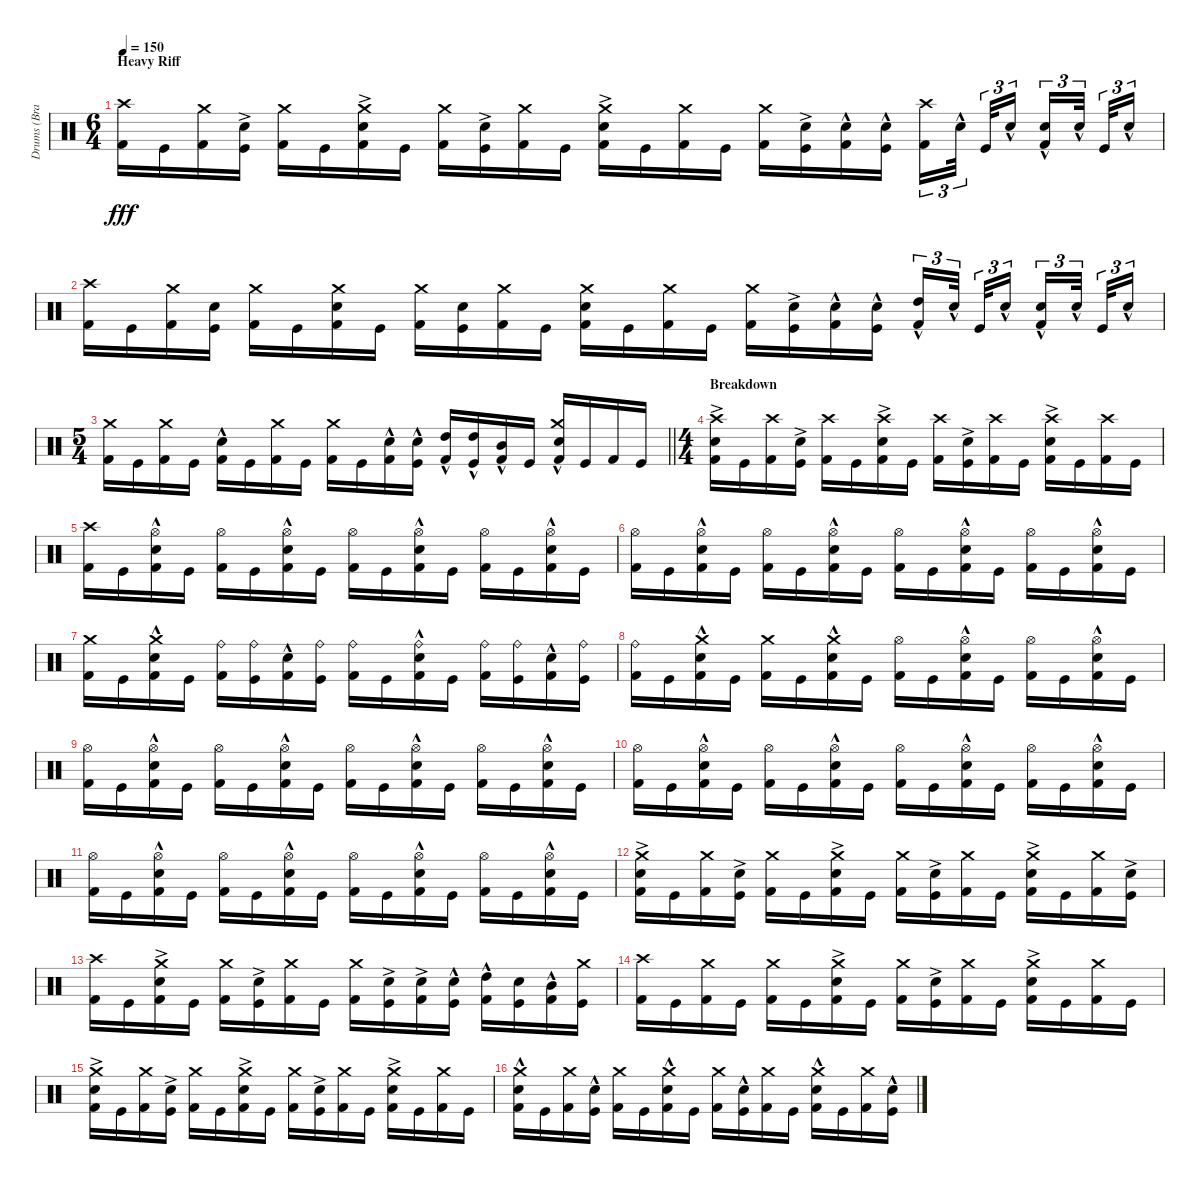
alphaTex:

\track ("Drums (Brann Dailor)" "Drums (Bra") {instrument percussion}
\staff {score}
\articulation defaults
\ts (6 4)
\section ("" "Heavy Riff")
\tempo 150
\clef neutral
\ks c
("Crash high (hit)" "Kick (hit) 2").16{dy fff} "Kick (hit)".16 ("Crash medium (hit)" "Kick (hit) 2").16 ("Electric Snare (hit)"{ac} "Kick (hit)").16 ("Crash medium (hit)" "Kick (hit) 2").16 "Kick (hit)".16 ("Crash medium (hit)" "Electric Snare (hit)"{ac} "Kick (hit) 2").16 "Kick (hit)".16 ("Crash medium (hit)" "Kick (hit) 2").16 ("Electric Snare (hit)"{ac} "Kick (hit)").16 ("Crash medium (hit)" "Kick (hit) 2").16 "Kick (hit)".16 ("Crash medium (hit)" "Electric Snare (hit)"{ac} "Kick (hit) 2").16 "Kick (hit)".16 ("Crash medium (hit)" "Kick (hit) 2").16 "Kick (hit)".16 ("Crash medium (hit)" "Kick (hit) 2").16 ("Electric Snare (hit)"{ac} "Kick (hit)").16 ("Electric Snare (hit)"{hac} "Kick (hit) 2").16 ("Electric Snare (hit)"{hac} "Kick (hit)").16{beam splitsecondary} ("Crash high (hit)" "Kick (hit) 2").16{tu (3 2)} "Electric Snare (hit)"{hac}.32{tu (3 2) beam splitsecondary} "Kick (hit)".32{tu (3 2)} "Electric Snare (hit)"{hac}.16{tu (3 2) beam splitsecondary} ("Electric Snare (hit)"{hac} "Kick (hit) 2").16{tu (3 2)} "Electric Snare (hit)"{hac}.32{tu (3 2) beam splitsecondary} "Kick (hit)".32{tu (3 2)} "Electric Snare (hit)"{hac}.16{tu (3 2)} |
("Crash high (hit)" "Kick (hit) 2").16 "Kick (hit)".16 ("Crash medium (hit)" "Kick (hit) 2").16 ("Electric Snare (hit)" "Kick (hit)").16 ("Crash medium (hit)" "Kick (hit) 2").16 "Kick (hit)".16 ("Crash medium (hit)" "Electric Snare (hit)" "Kick (hit) 2").16 "Kick (hit)".16 ("Crash medium (hit)" "Kick (hit) 2").16 ("Electric Snare (hit)" "Kick (hit)").16 ("Crash medium (hit)" "Kick (hit) 2").16 "Kick (hit)".16 ("Crash medium (hit)" "Electric Snare (hit)" "Kick (hit) 2").16 "Kick (hit)".16 ("Crash medium (hit)" "Kick (hit) 2").16 "Kick (hit)".16 ("Crash medium (hit)" "Kick (hit) 2").16 ("Electric Snare (hit)"{ac} "Kick (hit)").16 ("Electric Snare (hit)"{hac} "Kick (hit) 2").16 ("Electric Snare (hit)"{hac} "Kick (hit)").16{beam splitsecondary} ("High Tom (hit)"{hac} "Kick (hit) 2").16{tu (3 2)} "Electric Snare (hit)"{hac}.32{tu (3 2) beam splitsecondary} "Kick (hit)".32{tu (3 2)} "Electric Snare (hit)"{hac}.16{tu (3 2) beam splitsecondary} ("Electric Snare (hit)"{hac} "Kick (hit) 2").16{tu (3 2)} "Electric Snare (hit)"{hac}.32{tu (3 2) beam splitsecondary} "Kick (hit)".32{tu (3 2)} "Electric Snare (hit)"{hac}.16{tu (3 2)} |
\ts (5 4)
\barLineRight lightlight
("Crash medium (hit)" "Kick (hit) 2").16 "Kick (hit)".16 ("Crash medium (hit)" "Kick (hit) 2").16 "Kick (hit)".16 ("Electric Snare (hit)"{hac} "Kick (hit) 2").16 "Kick (hit)".16 ("Crash medium (hit)" "Kick (hit) 2").16 "Kick (hit)".16 ("Crash medium (hit)" "Kick (hit) 2").16 "Kick (hit)".16 ("Electric Snare (hit)"{hac} "Kick (hit) 2").16 ("Electric Snare (hit)"{hac} "Kick (hit)").16 ("High Tom (hit)"{hac} "Kick (hit) 2").16 ("High Tom (hit)"{hac} "Kick (hit)").16 ("Mid Tom (hit)"{hac} "Kick (hit) 2").16 "Kick (hit)".16 ("Crash medium (hit)" "Electric Snare (hit)"{hac} "Kick (hit) 2").16 "Kick (hit)".16 "Kick (hit) 2".16 "Kick (hit)".16 |
\ts (4 4)
\section ("" "Breakdown")
("Crash high (hit)" "Electric Snare (hit)"{ac} "Kick (hit) 2").16 "Kick (hit)".16 ("Crash high (hit)" "Kick (hit) 2").16 ("Electric Snare (hit)"{ac} "Kick (hit)").16 ("Crash high (hit)" "Kick (hit) 2").16 "Kick (hit)".16 ("Crash high (hit)" "Electric Snare (hit)"{ac} "Kick (hit) 2").16 "Kick (hit)".16 ("Crash high (hit)" "Kick (hit) 2").16 ("Electric Snare (hit)"{ac} "Kick (hit)").16 ("Crash high (hit)" "Kick (hit) 2").16 "Kick (hit)".16 ("Crash high (hit)" "Electric Snare (hit)"{ac} "Kick (hit) 2").16 "Kick (hit)".16 ("Crash high (hit)" "Kick (hit) 2").16 "Kick (hit)".16 |
("Crash high (hit)" "Kick (hit) 2").16 "Kick (hit)".16 ("Hi-Hat (open)" "Electric Snare (hit)"{hac} "Kick (hit) 2").16 "Kick (hit)".16 ("Hi-Hat (open)" "Kick (hit) 2").16 "Kick (hit)".16 ("Hi-Hat (open)" "Electric Snare (hit)"{hac} "Kick (hit) 2").16 "Kick (hit)".16 ("Hi-Hat (open)" "Kick (hit) 2").16 "Kick (hit)".16 ("Hi-Hat (open)" "Electric Snare (hit)"{hac} "Kick (hit) 2").16 "Kick (hit)".16 ("Hi-Hat (open)" "Kick (hit) 2").16 "Kick (hit)".16 ("Hi-Hat (open)" "Electric Snare (hit)"{hac} "Kick (hit) 2").16 "Kick (hit)".16 |
("Hi-Hat (open)" "Kick (hit) 2").16 "Kick (hit)".16 ("Hi-Hat (open)" "Electric Snare (hit)"{hac} "Kick (hit) 2").16 "Kick (hit)".16 ("Hi-Hat (open)" "Kick (hit) 2").16 "Kick (hit)".16 ("Hi-Hat (open)" "Electric Snare (hit)"{hac} "Kick (hit) 2").16 "Kick (hit)".16 ("Hi-Hat (open)" "Kick (hit) 2").16 "Kick (hit)".16 ("Hi-Hat (open)" "Electric Snare (hit)"{hac} "Kick (hit) 2").16 "Kick (hit)".16 ("Hi-Hat (open)" "Kick (hit) 2").16 "Kick (hit)".16 ("Hi-Hat (open)" "Electric Snare (hit)"{hac} "Kick (hit) 2").16 "Kick (hit)".16 |
("Crash medium (hit)" "Kick (hit) 2").16 "Kick (hit)".16 ("Crash medium (hit)" "Electric Snare (hit)"{hac} "Kick (hit) 2").16 "Kick (hit)".16 ("Ride (bell)" "Kick (hit) 2").16 ("Ride (bell)" "Kick (hit)").16 ("Electric Snare (hit)"{hac} "Kick (hit) 2").16 ("Ride (bell)" "Kick (hit)").16 ("Ride (bell)" "Kick (hit) 2").16 "Kick (hit)".16 ("Ride (bell)" "Electric Snare (hit)"{hac} "Kick (hit) 2").16 "Kick (hit)".16 ("Ride (bell)" "Kick (hit) 2").16 ("Ride (bell)" "Kick (hit)").16 ("Electric Snare (hit)"{hac} "Kick (hit) 2").16 ("Ride (bell)" "Kick (hit)").16 |
("Ride (bell)" "Kick (hit) 2").16 "Kick (hit)".16 ("Crash medium (hit)" "Electric Snare (hit)"{hac} "Kick (hit) 2").16 "Kick (hit)".16 ("Crash medium (hit)" "Kick (hit) 2").16 "Kick (hit)".16 ("Crash medium (hit)" "Electric Snare (hit)"{hac} "Kick (hit) 2").16 "Kick (hit)".16 ("Hi-Hat (open)" "Kick (hit) 2").16 "Kick (hit)".16 ("Hi-Hat (open)" "Electric Snare (hit)"{hac} "Kick (hit) 2").16 "Kick (hit)".16 ("Hi-Hat (open)" "Kick (hit) 2").16 "Kick (hit)".16 ("Hi-Hat (open)" "Electric Snare (hit)"{hac} "Kick (hit) 2").16 "Kick (hit)".16 |
("Hi-Hat (open)" "Kick (hit) 2").16 "Kick (hit)".16 ("Hi-Hat (open)" "Electric Snare (hit)"{hac} "Kick (hit) 2").16 "Kick (hit)".16 ("Hi-Hat (open)" "Kick (hit) 2").16 "Kick (hit)".16 ("Hi-Hat (open)" "Electric Snare (hit)"{hac} "Kick (hit) 2").16 "Kick (hit)".16 ("Hi-Hat (open)" "Kick (hit) 2").16 "Kick (hit)".16 ("Hi-Hat (open)" "Electric Snare (hit)"{hac} "Kick (hit) 2").16 "Kick (hit)".16 ("Hi-Hat (open)" "Kick (hit) 2").16 "Kick (hit)".16 ("Hi-Hat (open)" "Electric Snare (hit)"{hac} "Kick (hit) 2").16 "Kick (hit)".16 |
("Hi-Hat (open)" "Kick (hit) 2").16 "Kick (hit)".16 ("Hi-Hat (open)" "Electric Snare (hit)"{hac} "Kick (hit) 2").16 "Kick (hit)".16 ("Hi-Hat (open)" "Kick (hit) 2").16 "Kick (hit)".16 ("Hi-Hat (open)" "Electric Snare (hit)"{hac} "Kick (hit) 2").16 "Kick (hit)".16 ("Hi-Hat (open)" "Kick (hit) 2").16 "Kick (hit)".16 ("Hi-Hat (open)" "Electric Snare (hit)"{hac} "Kick (hit) 2").16 "Kick (hit)".16 ("Hi-Hat (open)" "Kick (hit) 2").16 "Kick (hit)".16 ("Hi-Hat (open)" "Electric Snare (hit)"{hac} "Kick (hit) 2").16 "Kick (hit)".16 |
("Hi-Hat (open)" "Kick (hit) 2").16 "Kick (hit)".16 ("Hi-Hat (open)" "Electric Snare (hit)"{hac} "Kick (hit) 2").16 "Kick (hit)".16 ("Hi-Hat (open)" "Kick (hit) 2").16 "Kick (hit)".16 ("Hi-Hat (open)" "Electric Snare (hit)"{hac} "Kick (hit) 2").16 "Kick (hit)".16 ("Hi-Hat (open)" "Kick (hit) 2").16 "Kick (hit)".16 ("Hi-Hat (open)" "Electric Snare (hit)"{hac} "Kick (hit) 2").16 "Kick (hit)".16 ("Hi-Hat (open)" "Kick (hit) 2").16 "Kick (hit)".16 ("Hi-Hat (open)" "Electric Snare (hit)"{hac} "Kick (hit) 2").16 "Kick (hit)".16 |
("Crash medium (hit)" "Electric Snare (hit)"{ac} "Kick (hit) 2").16 "Kick (hit)".16 ("Crash medium (hit)" "Kick (hit) 2").16 ("Electric Snare (hit)"{ac} "Kick (hit)").16 ("Crash medium (hit)" "Kick (hit) 2").16 "Kick (hit)".16 ("Crash medium (hit)" "Electric Snare (hit)"{ac} "Kick (hit) 2").16 "Kick (hit)".16 ("Crash medium (hit)" "Kick (hit) 2").16 ("Electric Snare (hit)"{ac} "Kick (hit)").16 ("Crash medium (hit)" "Kick (hit) 2").16 "Kick (hit)".16 ("Crash medium (hit)" "Electric Snare (hit)"{ac} "Kick (hit) 2").16 "Kick (hit)".16 ("Crash medium (hit)" "Kick (hit) 2").16 ("Electric Snare (hit)"{ac} "Kick (hit)").16 |
("Crash high (hit)" "Kick (hit) 2").16 "Kick (hit)".16 ("Crash medium (hit)" "Electric Snare (hit)"{ac} "Kick (hit) 2").16 "Kick (hit)".16 ("Crash medium (hit)" "Kick (hit) 2").16 ("Electric Snare (hit)"{ac} "Kick (hit)").16 ("Crash medium (hit)" "Kick (hit) 2").16 "Kick (hit)".16 ("Crash medium (hit)" "Kick (hit) 2").16 ("Electric Snare (hit)"{ac} "Kick (hit)").16 ("Electric Snare (hit)"{ac} "Kick (hit) 2").16 ("Electric Snare (hit)"{hac} "Kick (hit)").16 ("High Tom (hit)"{hac} "Kick (hit) 2").16 ("Electric Snare (hit)" "Kick (hit)").16 ("Mid Tom (hit)"{hac} "Kick (hit) 2").16 ("Crash medium (hit)" "Kick (hit)").16 |
("Crash high (hit)" "Kick (hit) 2").16 "Kick (hit)".16 ("Crash medium (hit)" "Kick (hit) 2").16 "Kick (hit)".16 ("Crash medium (hit)" "Kick (hit) 2").16 "Kick (hit)".16 ("Crash medium (hit)" "Electric Snare (hit)"{ac} "Kick (hit) 2").16 "Kick (hit)".16 ("Crash medium (hit)" "Kick (hit) 2").16 ("Electric Snare (hit)"{ac} "Kick (hit)").16 ("Crash medium (hit)" "Kick (hit) 2").16 "Kick (hit)".16 ("Crash medium (hit)" "Electric Snare (hit)"{ac} "Kick (hit) 2").16 "Kick (hit)".16 ("Crash medium (hit)" "Kick (hit) 2").16 "Kick (hit)".16 |
("Crash medium (hit)" "Electric Snare (hit)"{ac} "Kick (hit) 2").16 "Kick (hit)".16 ("Crash medium (hit)" "Kick (hit) 2").16 ("Electric Snare (hit)"{ac} "Kick (hit)").16 ("Crash medium (hit)" "Kick (hit) 2").16 "Kick (hit)".16 ("Crash medium (hit)" "Electric Snare (hit)"{ac} "Kick (hit) 2").16 "Kick (hit)".16 ("Crash medium (hit)" "Kick (hit) 2").16 ("Electric Snare (hit)"{ac} "Kick (hit)").16 ("Crash medium (hit)" "Kick (hit) 2").16 "Kick (hit)".16 ("Crash medium (hit)" "Electric Snare (hit)"{ac} "Kick (hit) 2").16 "Kick (hit)".16 ("Crash medium (hit)" "Kick (hit) 2").16 "Kick (hit)".16 |
("Crash medium (hit)" "Electric Snare (hit)"{hac} "Kick (hit) 2").16 "Kick (hit)".16 ("Crash medium (hit)" "Kick (hit) 2").16 ("Electric Snare (hit)"{hac} "Kick (hit)").16 ("Crash medium (hit)" "Kick (hit) 2").16 "Kick (hit)".16 ("Crash medium (hit)" "Electric Snare (hit)"{hac} "Kick (hit) 2").16 "Kick (hit)".16 ("Crash medium (hit)" "Kick (hit) 2").16 ("Electric Snare (hit)"{hac} "Kick (hit)").16 ("Crash medium (hit)" "Kick (hit) 2").16 "Kick (hit)".16 ("Crash medium (hit)" "Electric Snare (hit)"{hac} "Kick (hit) 2").16 "Kick (hit)".16 ("Crash medium (hit)" "Kick (hit) 2").16 ("Electric Snare (hit)"{hac} "Kick (hit)").16
